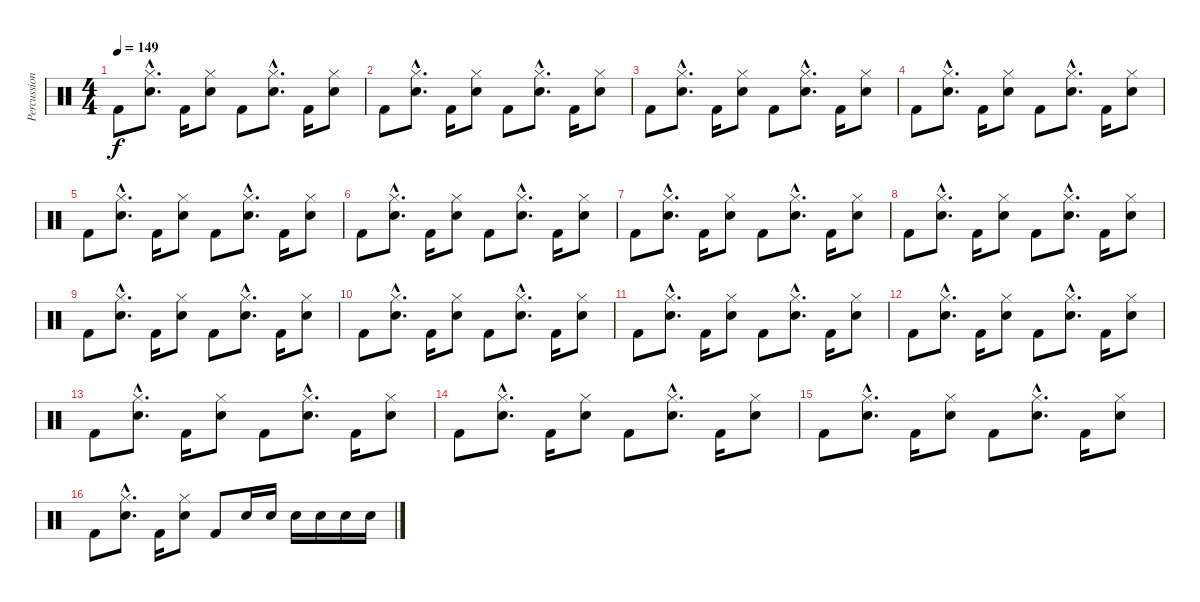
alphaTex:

\track ("Percussion" "Percussion") {instrument percussion}
\staff {score}
\articulation defaults
\ts (4 4)
\tempo 149
\clef neutral
\ks c "Kick (hit) 2".8{dy f}
("Snare (hit) 2"{hac} "Hi-Hat (closed)"{hac}).8{d} "Kick (hit) 2".16 ("Snare (hit) 2" "Hi-Hat (closed)").8 "Kick (hit) 2".8 ("Snare (hit) 2"{hac} "Hi-Hat (closed)"{hac}).8{d} "Kick (hit) 2".16 ("Snare (hit) 2" "Hi-Hat (closed)").8 |
"Kick (hit) 2".8 ("Snare (hit) 2"{hac} "Hi-Hat (closed)"{hac}).8{d} "Kick (hit) 2".16 ("Snare (hit) 2" "Hi-Hat (closed)").8 "Kick (hit) 2".8 ("Snare (hit) 2"{hac} "Hi-Hat (closed)"{hac}).8{d} "Kick (hit) 2".16 ("Snare (hit) 2" "Hi-Hat (closed)").8 |
"Kick (hit) 2".8 ("Snare (hit) 2"{hac} "Hi-Hat (closed)"{hac}).8{d} "Kick (hit) 2".16 ("Snare (hit) 2" "Hi-Hat (closed)").8 "Kick (hit) 2".8 ("Snare (hit) 2"{hac} "Hi-Hat (closed)"{hac}).8{d} "Kick (hit) 2".16 ("Snare (hit) 2" "Hi-Hat (closed)").8 |
"Kick (hit) 2".8 ("Snare (hit) 2"{hac} "Hi-Hat (closed)"{hac}).8{d} "Kick (hit) 2".16 ("Snare (hit) 2" "Hi-Hat (closed)").8 "Kick (hit) 2".8 ("Snare (hit) 2"{hac} "Hi-Hat (closed)"{hac}).8{d} "Kick (hit) 2".16 ("Snare (hit) 2" "Hi-Hat (closed)").8 |
"Kick (hit) 2".8 ("Snare (hit) 2"{hac} "Hi-Hat (closed)"{hac}).8{d} "Kick (hit) 2".16 ("Snare (hit) 2" "Hi-Hat (closed)").8 "Kick (hit) 2".8 ("Snare (hit) 2"{hac} "Hi-Hat (closed)"{hac}).8{d} "Kick (hit) 2".16 ("Snare (hit) 2" "Hi-Hat (closed)").8 |
"Kick (hit) 2".8 ("Snare (hit) 2"{hac} "Hi-Hat (closed)"{hac}).8{d} "Kick (hit) 2".16 ("Snare (hit) 2" "Hi-Hat (closed)").8 "Kick (hit) 2".8 ("Snare (hit) 2"{hac} "Hi-Hat (closed)"{hac}).8{d} "Kick (hit) 2".16 ("Snare (hit) 2" "Hi-Hat (closed)").8 |
"Kick (hit) 2".8 ("Snare (hit) 2"{hac} "Hi-Hat (closed)"{hac}).8{d} "Kick (hit) 2".16 ("Snare (hit) 2" "Hi-Hat (closed)").8 "Kick (hit) 2".8 ("Snare (hit) 2"{hac} "Hi-Hat (closed)"{hac}).8{d} "Kick (hit) 2".16 ("Snare (hit) 2" "Hi-Hat (closed)").8 |
"Kick (hit) 2".8 ("Snare (hit) 2"{hac} "Hi-Hat (closed)"{hac}).8{d} "Kick (hit) 2".16 ("Snare (hit) 2" "Hi-Hat (closed)").8 "Kick (hit) 2".8 ("Snare (hit) 2"{hac} "Hi-Hat (closed)"{hac}).8{d} "Kick (hit) 2".16 ("Snare (hit) 2" "Hi-Hat (closed)").8 |
"Kick (hit) 2".8 ("Snare (hit) 2"{hac} "Hi-Hat (closed)"{hac}).8{d} "Kick (hit) 2".16 ("Snare (hit) 2" "Hi-Hat (closed)").8 "Kick (hit) 2".8 ("Snare (hit) 2"{hac} "Hi-Hat (closed)"{hac}).8{d} "Kick (hit) 2".16 ("Snare (hit) 2" "Hi-Hat (closed)").8 |
"Kick (hit) 2".8 ("Snare (hit) 2"{hac} "Hi-Hat (closed)"{hac}).8{d} "Kick (hit) 2".16 ("Snare (hit) 2" "Hi-Hat (closed)").8 "Kick (hit) 2".8 ("Snare (hit) 2"{hac} "Hi-Hat (closed)"{hac}).8{d} "Kick (hit) 2".16 ("Snare (hit) 2" "Hi-Hat (closed)").8 |
"Kick (hit) 2".8 ("Snare (hit) 2"{hac} "Hi-Hat (closed)"{hac}).8{d} "Kick (hit) 2".16 ("Snare (hit) 2" "Hi-Hat (closed)").8 "Kick (hit) 2".8 ("Snare (hit) 2"{hac} "Hi-Hat (closed)"{hac}).8{d} "Kick (hit) 2".16 ("Snare (hit) 2" "Hi-Hat (closed)").8 |
"Kick (hit) 2".8 ("Snare (hit) 2"{hac} "Hi-Hat (closed)"{hac}).8{d} "Kick (hit) 2".16 ("Snare (hit) 2" "Hi-Hat (closed)").8 "Kick (hit) 2".8 ("Snare (hit) 2"{hac} "Hi-Hat (closed)"{hac}).8{d} "Kick (hit) 2".16 ("Snare (hit) 2" "Hi-Hat (closed)").8 |
"Kick (hit) 2".8 ("Snare (hit) 2"{hac} "Hi-Hat (closed)"{hac}).8{d} "Kick (hit) 2".16 ("Snare (hit) 2" "Hi-Hat (closed)").8 "Kick (hit) 2".8 ("Snare (hit) 2"{hac} "Hi-Hat (closed)"{hac}).8{d} "Kick (hit) 2".16 ("Snare (hit) 2" "Hi-Hat (closed)").8 |
"Kick (hit) 2".8 ("Snare (hit) 2"{hac} "Hi-Hat (closed)"{hac}).8{d} "Kick (hit) 2".16 ("Snare (hit) 2" "Hi-Hat (closed)").8 "Kick (hit) 2".8 ("Snare (hit) 2"{hac} "Hi-Hat (closed)"{hac}).8{d} "Kick (hit) 2".16 ("Snare (hit) 2" "Hi-Hat (closed)").8 |
"Kick (hit) 2".8 ("Snare (hit) 2"{hac} "Hi-Hat (closed)"{hac}).8{d} "Kick (hit) 2".16 ("Snare (hit) 2" "Hi-Hat (closed)").8 "Kick (hit) 2".8 ("Snare (hit) 2"{hac} "Hi-Hat (closed)"{hac}).8{d} "Kick (hit) 2".16 ("Snare (hit) 2" "Hi-Hat (closed)").8 |
"Kick (hit) 2".8 ("Snare (hit) 2"{hac} "Hi-Hat (closed)"{hac}).8{d} "Kick (hit) 2".16 ("Snare (hit) 2" "Hi-Hat (closed)").8 "Kick (hit) 2".8 "Snare (hit) 2".16 "Snare (hit) 2".16 "Snare (hit) 2".16 "Snare (hit) 2".16 "Snare (hit) 2".16 "Snare (hit) 2".16
